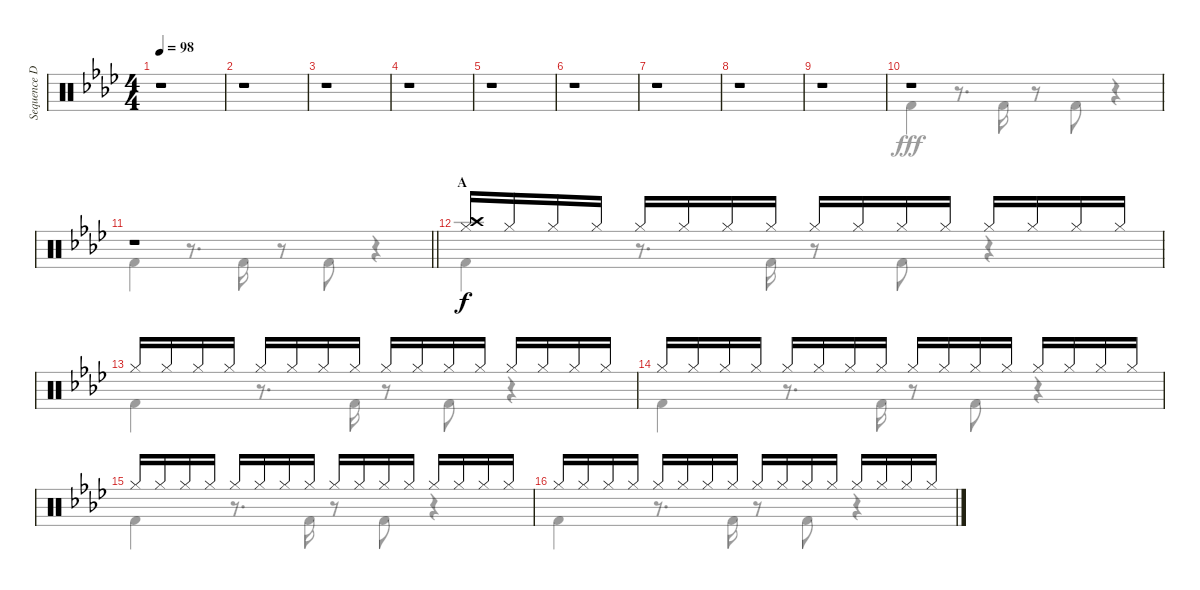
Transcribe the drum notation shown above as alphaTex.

\track ("Sequence Drums I" "Sequence D") {instrument percussion}
\staff {score}
\articulation defaults
\voice
\ts (4 4)
\tempo 98
\clef neutral
\ks ab
r.1{dy f} |
r.1 |
r.1 |
r.1 |
r.1 |
r.1 |
r.1 |
r.1 |
r.1 |
r.1 |
\barLineRight lightlight
r.1 |
\section ("" "A")
("Crash high (hit)" "Hi-Hat (closed)").16 "Hi-Hat (closed)".16 "Hi-Hat (closed)".16 "Hi-Hat (closed)".16 "Hi-Hat (closed)".16 "Hi-Hat (closed)".16 "Hi-Hat (closed)".16 "Hi-Hat (closed)".16 "Hi-Hat (closed)".16 "Hi-Hat (closed)".16 "Hi-Hat (closed)".16 "Hi-Hat (closed)".16 "Hi-Hat (closed)".16 "Hi-Hat (closed)".16 "Hi-Hat (closed)".16 "Hi-Hat (closed)".16 |
"Hi-Hat (closed)".16 "Hi-Hat (closed)".16 "Hi-Hat (closed)".16 "Hi-Hat (closed)".16 "Hi-Hat (closed)".16 "Hi-Hat (closed)".16 "Hi-Hat (closed)".16 "Hi-Hat (closed)".16 "Hi-Hat (closed)".16 "Hi-Hat (closed)".16 "Hi-Hat (closed)".16 "Hi-Hat (closed)".16 "Hi-Hat (closed)".16 "Hi-Hat (closed)".16 "Hi-Hat (closed)".16 "Hi-Hat (closed)".16 |
"Hi-Hat (closed)".16 "Hi-Hat (closed)".16 "Hi-Hat (closed)".16 "Hi-Hat (closed)".16 "Hi-Hat (closed)".16 "Hi-Hat (closed)".16 "Hi-Hat (closed)".16 "Hi-Hat (closed)".16 "Hi-Hat (closed)".16 "Hi-Hat (closed)".16 "Hi-Hat (closed)".16 "Hi-Hat (closed)".16 "Hi-Hat (closed)".16 "Hi-Hat (closed)".16 "Hi-Hat (closed)".16 "Hi-Hat (closed)".16 |
"Hi-Hat (closed)".16 "Hi-Hat (closed)".16 "Hi-Hat (closed)".16 "Hi-Hat (closed)".16 "Hi-Hat (closed)".16 "Hi-Hat (closed)".16 "Hi-Hat (closed)".16 "Hi-Hat (closed)".16 "Hi-Hat (closed)".16 "Hi-Hat (closed)".16 "Hi-Hat (closed)".16 "Hi-Hat (closed)".16 "Hi-Hat (closed)".16 "Hi-Hat (closed)".16 "Hi-Hat (closed)".16 "Hi-Hat (closed)".16 |
"Hi-Hat (closed)".16 "Hi-Hat (closed)".16 "Hi-Hat (closed)".16 "Hi-Hat (closed)".16 "Hi-Hat (closed)".16 "Hi-Hat (closed)".16 "Hi-Hat (closed)".16 "Hi-Hat (closed)".16 "Hi-Hat (closed)".16 "Hi-Hat (closed)".16 "Hi-Hat (closed)".16 "Hi-Hat (closed)".16 "Hi-Hat (closed)".16 "Hi-Hat (closed)".16 "Hi-Hat (closed)".16 "Hi-Hat (closed)".16
\voice
\clef neutral
\ottava regular
\simile none
\ks ab
r.1{dy fff} |
r.1 |
r.1 |
r.1 |
r.1 |
r.1 |
r.1 |
r.1 |
r.1 |
"Kick (hit) 2".4 r.8{d} "Kick (hit) 2".16 r.8 "Kick (hit) 2".8 r.4 |
\barLineRight lightlight "Kick (hit) 2".4
r.8{d} "Kick (hit) 2".16 r.8 "Kick (hit) 2".8 r.4 |
"Kick (hit) 2".4 r.8{d} "Kick (hit) 2".16 r.8 "Kick (hit) 2".8 r.4 |
"Kick (hit) 2".4 r.8{d} "Kick (hit) 2".16 r.8 "Kick (hit) 2".8 r.4 |
"Kick (hit) 2".4 r.8{d} "Kick (hit) 2".16 r.8 "Kick (hit) 2".8 r.4 |
"Kick (hit) 2".4 r.8{d} "Kick (hit) 2".16 r.8 "Kick (hit) 2".8 r.4 |
"Kick (hit) 2".4 r.8{d} "Kick (hit) 2".16 r.8 "Kick (hit) 2".8 r.4
